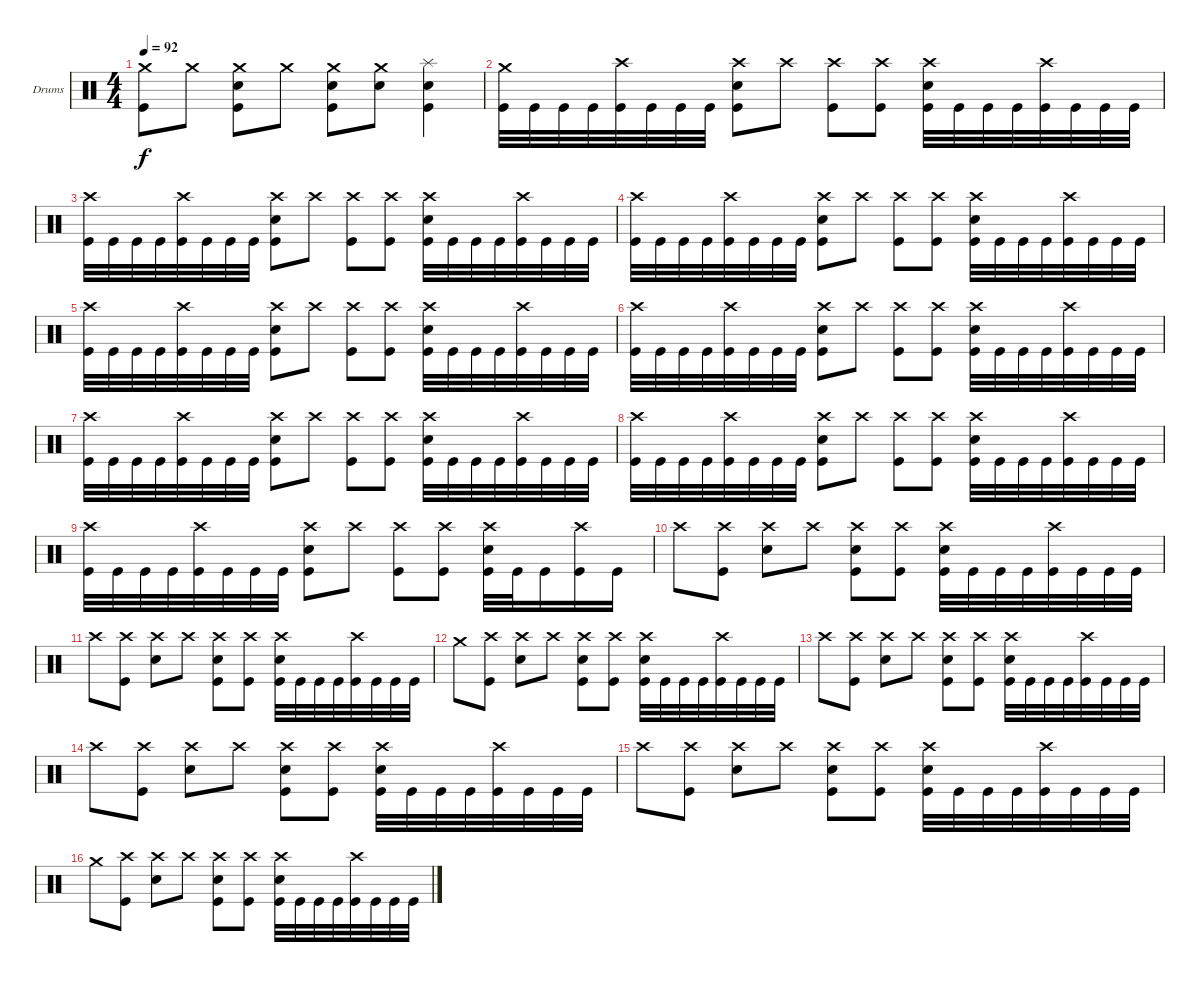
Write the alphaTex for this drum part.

\bracketExtendMode groupsimilarinstruments
\firstSystemTrackNameOrientation horizontal
\otherSystemsTrackNameOrientation horizontal
\track ("Drumkit" "Drums") {instrument percussion}
\staff {score}
\articulation defaults
\ts (4 4)
\tempo 92
\clef neutral
\ks c
("Crash medium (hit)" "Kick (hit)").8{dy f} "Crash medium (hit)".8 ("Crash medium (hit)" "Snare (hit) 2" "Kick (hit)").8 "Crash medium (hit)".8 ("Crash medium (hit)" "Snare (hit) 2" "Kick (hit)").8 ("Crash medium (hit)" "Snare (hit) 2").8 ("Splash (hit)" "Snare (hit) 2" "Kick (hit)").4 |
("Crash medium (hit)" "Kick (hit)").32 "Kick (hit)".32 "Kick (hit)".32 "Kick (hit)".32 ("Crash high (hit)" "Kick (hit)").32 "Kick (hit)".32 "Kick (hit)".32 "Kick (hit)".32 ("Crash high (hit)" "Snare (hit) 2" "Kick (hit)").8 "Crash high (hit)".8 ("Crash high (hit)" "Kick (hit)").8 ("Crash high (hit)" "Kick (hit)").8 ("Crash high (hit)" "Snare (hit) 2" "Kick (hit)").32 "Kick (hit)".32 "Kick (hit)".32 "Kick (hit)".32 ("Crash high (hit)" "Kick (hit)").32 "Kick (hit)".32 "Kick (hit)".32 "Kick (hit)".32 |
("Crash high (hit)" "Kick (hit)").32 "Kick (hit)".32 "Kick (hit)".32 "Kick (hit)".32 ("Crash high (hit)" "Kick (hit)").32 "Kick (hit)".32 "Kick (hit)".32 "Kick (hit)".32 ("Crash high (hit)" "Snare (hit) 2" "Kick (hit)").8 "Crash high (hit)".8 ("Crash high (hit)" "Kick (hit)").8 ("Crash high (hit)" "Kick (hit)").8 ("Crash high (hit)" "Snare (hit) 2" "Kick (hit)").32 "Kick (hit)".32 "Kick (hit)".32 "Kick (hit)".32 ("Crash high (hit)" "Kick (hit)").32 "Kick (hit)".32 "Kick (hit)".32 "Kick (hit)".32 |
("Crash high (hit)" "Kick (hit)").32 "Kick (hit)".32 "Kick (hit)".32 "Kick (hit)".32 ("Crash high (hit)" "Kick (hit)").32 "Kick (hit)".32 "Kick (hit)".32 "Kick (hit)".32 ("Crash high (hit)" "Snare (hit) 2" "Kick (hit)").8 "Crash high (hit)".8 ("Crash high (hit)" "Kick (hit)").8 ("Crash high (hit)" "Kick (hit)").8 ("Crash high (hit)" "Snare (hit) 2" "Kick (hit)").32 "Kick (hit)".32 "Kick (hit)".32 "Kick (hit)".32 ("Crash high (hit)" "Kick (hit)").32 "Kick (hit)".32 "Kick (hit)".32 "Kick (hit)".32 |
("Crash high (hit)" "Kick (hit)").32 "Kick (hit)".32 "Kick (hit)".32 "Kick (hit)".32 ("Crash high (hit)" "Kick (hit)").32 "Kick (hit)".32 "Kick (hit)".32 "Kick (hit)".32 ("Crash high (hit)" "Snare (hit) 2" "Kick (hit)").8 "Crash high (hit)".8 ("Crash high (hit)" "Kick (hit)").8 ("Crash high (hit)" "Kick (hit)").8 ("Crash high (hit)" "Snare (hit) 2" "Kick (hit)").32 "Kick (hit)".32 "Kick (hit)".32 "Kick (hit)".32 ("Crash high (hit)" "Kick (hit)").32 "Kick (hit)".32 "Kick (hit)".32 "Kick (hit)".32 |
("Crash high (hit)" "Kick (hit)").32 "Kick (hit)".32 "Kick (hit)".32 "Kick (hit)".32 ("Crash high (hit)" "Kick (hit)").32 "Kick (hit)".32 "Kick (hit)".32 "Kick (hit)".32 ("Crash high (hit)" "Snare (hit) 2" "Kick (hit)").8 "Crash high (hit)".8 ("Crash high (hit)" "Kick (hit)").8 ("Crash high (hit)" "Kick (hit)").8 ("Crash high (hit)" "Snare (hit) 2" "Kick (hit)").32 "Kick (hit)".32 "Kick (hit)".32 "Kick (hit)".32 ("Crash high (hit)" "Kick (hit)").32 "Kick (hit)".32 "Kick (hit)".32 "Kick (hit)".32 |
("Crash high (hit)" "Kick (hit)").32 "Kick (hit)".32 "Kick (hit)".32 "Kick (hit)".32 ("Crash high (hit)" "Kick (hit)").32 "Kick (hit)".32 "Kick (hit)".32 "Kick (hit)".32 ("Crash high (hit)" "Snare (hit) 2" "Kick (hit)").8 "Crash high (hit)".8 ("Crash high (hit)" "Kick (hit)").8 ("Crash high (hit)" "Kick (hit)").8 ("Crash high (hit)" "Snare (hit) 2" "Kick (hit)").32 "Kick (hit)".32 "Kick (hit)".32 "Kick (hit)".32 ("Crash high (hit)" "Kick (hit)").32 "Kick (hit)".32 "Kick (hit)".32 "Kick (hit)".32 |
("Crash high (hit)" "Kick (hit)").32 "Kick (hit)".32 "Kick (hit)".32 "Kick (hit)".32 ("Crash high (hit)" "Kick (hit)").32 "Kick (hit)".32 "Kick (hit)".32 "Kick (hit)".32 ("Crash high (hit)" "Snare (hit) 2" "Kick (hit)").8 "Crash high (hit)".8 ("Crash high (hit)" "Kick (hit)").8 ("Crash high (hit)" "Kick (hit)").8 ("Crash high (hit)" "Snare (hit) 2" "Kick (hit)").32 "Kick (hit)".32 "Kick (hit)".32 "Kick (hit)".32 ("Crash high (hit)" "Kick (hit)").32 "Kick (hit)".32 "Kick (hit)".32 "Kick (hit)".32 |
("Crash high (hit)" "Kick (hit)").32 "Kick (hit)".32 "Kick (hit)".32 "Kick (hit)".32 ("Crash high (hit)" "Kick (hit)").32 "Kick (hit)".32 "Kick (hit)".32 "Kick (hit)".32 ("Crash high (hit)" "Snare (hit) 2" "Kick (hit)").8 "Crash high (hit)".8 ("Crash high (hit)" "Kick (hit)").8 ("Crash high (hit)" "Kick (hit)").8 ("Crash high (hit)" "Snare (hit) 2" "Kick (hit)").32 "Kick (hit)".32 "Kick (hit)".16 ("Crash high (hit)" "Kick (hit)").16 "Kick (hit)".16 |
"Crash high (hit)".8 ("Crash high (hit)" "Kick (hit)").8 ("Crash high (hit)" "Snare (hit) 2").8 "Crash high (hit)".8 ("Crash high (hit)" "Snare (hit) 2" "Kick (hit)").8 ("Crash high (hit)" "Kick (hit)").8 ("Crash high (hit)" "Snare (hit) 2" "Kick (hit)").32 "Kick (hit)".32 "Kick (hit)".32 "Kick (hit)".32 ("Crash high (hit)" "Kick (hit)").32 "Kick (hit)".32 "Kick (hit)".32 "Kick (hit)".32 |
"Crash high (hit)".8 ("Crash high (hit)" "Kick (hit)").8 ("Crash high (hit)" "Snare (hit) 2").8 "Crash high (hit)".8 ("Crash high (hit)" "Snare (hit) 2" "Kick (hit)").8 ("Crash high (hit)" "Kick (hit)").8 ("Crash high (hit)" "Snare (hit) 2" "Kick (hit)").32 "Kick (hit)".32 "Kick (hit)".32 "Kick (hit)".32 ("Crash high (hit)" "Kick (hit)").32 "Kick (hit)".32 "Kick (hit)".32 "Kick (hit)".32 |
"Crash medium (hit)".8 ("Crash high (hit)" "Kick (hit)").8 ("Crash high (hit)" "Snare (hit) 2").8 "Crash high (hit)".8 ("Crash high (hit)" "Snare (hit) 2" "Kick (hit)").8 ("Crash high (hit)" "Kick (hit)").8 ("Crash high (hit)" "Snare (hit) 2" "Kick (hit)").32 "Kick (hit)".32 "Kick (hit)".32 "Kick (hit)".32 ("Crash high (hit)" "Kick (hit)").32 "Kick (hit)".32 "Kick (hit)".32 "Kick (hit)".32 |
"Crash high (hit)".8 ("Crash high (hit)" "Kick (hit)").8 ("Crash high (hit)" "Snare (hit) 2").8 "Crash high (hit)".8 ("Crash high (hit)" "Snare (hit) 2" "Kick (hit)").8 ("Crash high (hit)" "Kick (hit)").8 ("Crash high (hit)" "Snare (hit) 2" "Kick (hit)").32 "Kick (hit)".32 "Kick (hit)".32 "Kick (hit)".32 ("Crash high (hit)" "Kick (hit)").32 "Kick (hit)".32 "Kick (hit)".32 "Kick (hit)".32 |
"Crash high (hit)".8 ("Crash high (hit)" "Kick (hit)").8 ("Crash high (hit)" "Snare (hit) 2").8 "Crash high (hit)".8 ("Crash high (hit)" "Snare (hit) 2" "Kick (hit)").8 ("Crash high (hit)" "Kick (hit)").8 ("Crash high (hit)" "Snare (hit) 2" "Kick (hit)").32 "Kick (hit)".32 "Kick (hit)".32 "Kick (hit)".32 ("Crash high (hit)" "Kick (hit)").32 "Kick (hit)".32 "Kick (hit)".32 "Kick (hit)".32 |
"Crash high (hit)".8 ("Crash high (hit)" "Kick (hit)").8 ("Crash high (hit)" "Snare (hit) 2").8 "Crash high (hit)".8 ("Crash high (hit)" "Snare (hit) 2" "Kick (hit)").8 ("Crash high (hit)" "Kick (hit)").8 ("Crash high (hit)" "Snare (hit) 2" "Kick (hit)").32 "Kick (hit)".32 "Kick (hit)".32 "Kick (hit)".32 ("Crash high (hit)" "Kick (hit)").32 "Kick (hit)".32 "Kick (hit)".32 "Kick (hit)".32 |
"Crash medium (hit)".8 ("Crash high (hit)" "Kick (hit)").8 ("Crash high (hit)" "Snare (hit) 2").8 "Crash high (hit)".8 ("Crash high (hit)" "Snare (hit) 2" "Kick (hit)").8 ("Crash high (hit)" "Kick (hit)").8 ("Crash high (hit)" "Snare (hit) 2" "Kick (hit)").32 "Kick (hit)".32 "Kick (hit)".32 "Kick (hit)".32 ("Crash high (hit)" "Kick (hit)").32 "Kick (hit)".32 "Kick (hit)".32 "Kick (hit)".32
